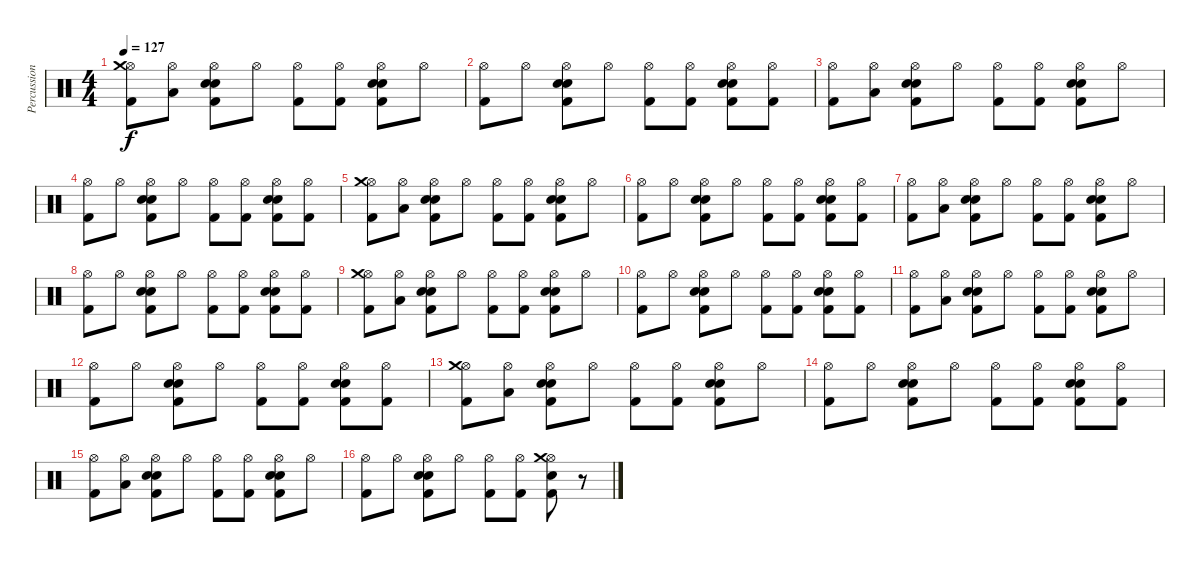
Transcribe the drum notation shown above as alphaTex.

\track ("Percussion" "Percussion") {instrument percussion}
\staff {score}
\articulation defaults
\ts (4 4)
\tempo 127
\clef neutral
\ks c
("Hi-Hat (open)" "Crash medium (hit)" "Kick (hit) 2").8{dy f} ("Hi-Hat (open)" "Low Floor Tom (hit)").8 ("Hi-Hat (open)" "Hand Clap (hit)" "Electric Snare (hit)" "Kick (hit) 2").8 "Hi-Hat (open)".8 ("Hi-Hat (open)" "Kick (hit) 2").8 ("Hi-Hat (open)" "Kick (hit) 2").8 ("Hi-Hat (open)" "Hand Clap (hit)" "Electric Snare (hit)" "Kick (hit) 2").8 "Hi-Hat (open)".8 |
("Hi-Hat (open)" "Kick (hit) 2").8 "Hi-Hat (open)".8 ("Hi-Hat (open)" "Hand Clap (hit)" "Electric Snare (hit)" "Kick (hit) 2").8 "Hi-Hat (open)".8 ("Hi-Hat (open)" "Kick (hit) 2").8 ("Hi-Hat (open)" "Kick (hit) 2").8 ("Hi-Hat (open)" "Hand Clap (hit)" "Electric Snare (hit)" "Kick (hit) 2").8 ("Hi-Hat (open)" "Kick (hit) 2").8 |
("Hi-Hat (open)" "Kick (hit) 2").8 ("Hi-Hat (open)" "Low Floor Tom (hit)").8 ("Hi-Hat (open)" "Hand Clap (hit)" "Electric Snare (hit)" "Kick (hit) 2").8 "Hi-Hat (open)".8 ("Hi-Hat (open)" "Kick (hit) 2").8 ("Hi-Hat (open)" "Kick (hit) 2").8 ("Hi-Hat (open)" "Hand Clap (hit)" "Electric Snare (hit)" "Kick (hit) 2").8 "Hi-Hat (open)".8 |
("Hi-Hat (open)" "Kick (hit) 2").8 "Hi-Hat (open)".8 ("Hi-Hat (open)" "Hand Clap (hit)" "Electric Snare (hit)" "Kick (hit) 2").8 "Hi-Hat (open)".8 ("Hi-Hat (open)" "Kick (hit) 2").8 ("Hi-Hat (open)" "Kick (hit) 2").8 ("Hi-Hat (open)" "Hand Clap (hit)" "Electric Snare (hit)" "Kick (hit) 2").8 ("Hi-Hat (open)" "Kick (hit) 2").8 |
("Hi-Hat (open)" "Crash medium (hit)" "Kick (hit) 2").8 ("Hi-Hat (open)" "Low Floor Tom (hit)").8 ("Hi-Hat (open)" "Hand Clap (hit)" "Electric Snare (hit)" "Kick (hit) 2").8 "Hi-Hat (open)".8 ("Hi-Hat (open)" "Kick (hit) 2").8 ("Hi-Hat (open)" "Kick (hit) 2").8 ("Hi-Hat (open)" "Hand Clap (hit)" "Electric Snare (hit)" "Kick (hit) 2").8 "Hi-Hat (open)".8 |
("Hi-Hat (open)" "Kick (hit) 2").8 "Hi-Hat (open)".8 ("Hi-Hat (open)" "Hand Clap (hit)" "Electric Snare (hit)" "Kick (hit) 2").8 "Hi-Hat (open)".8 ("Hi-Hat (open)" "Kick (hit) 2").8 ("Hi-Hat (open)" "Kick (hit) 2").8 ("Hi-Hat (open)" "Hand Clap (hit)" "Electric Snare (hit)" "Kick (hit) 2").8 ("Hi-Hat (open)" "Kick (hit) 2").8 |
("Hi-Hat (open)" "Kick (hit) 2").8 ("Hi-Hat (open)" "Low Floor Tom (hit)").8 ("Hi-Hat (open)" "Hand Clap (hit)" "Electric Snare (hit)" "Kick (hit) 2").8 "Hi-Hat (open)".8 ("Hi-Hat (open)" "Kick (hit) 2").8 ("Hi-Hat (open)" "Kick (hit) 2").8 ("Hi-Hat (open)" "Hand Clap (hit)" "Electric Snare (hit)" "Kick (hit) 2").8 "Hi-Hat (open)".8 |
("Hi-Hat (open)" "Kick (hit) 2").8 "Hi-Hat (open)".8 ("Hi-Hat (open)" "Hand Clap (hit)" "Electric Snare (hit)" "Kick (hit) 2").8 "Hi-Hat (open)".8 ("Hi-Hat (open)" "Kick (hit) 2").8 ("Hi-Hat (open)" "Kick (hit) 2").8 ("Hi-Hat (open)" "Hand Clap (hit)" "Electric Snare (hit)" "Kick (hit) 2").8 ("Hi-Hat (open)" "Kick (hit) 2").8 |
("Hi-Hat (open)" "Crash medium (hit)" "Kick (hit) 2").8 ("Hi-Hat (open)" "Low Floor Tom (hit)").8 ("Hi-Hat (open)" "Hand Clap (hit)" "Electric Snare (hit)" "Kick (hit) 2").8 "Hi-Hat (open)".8 ("Hi-Hat (open)" "Kick (hit) 2").8 ("Hi-Hat (open)" "Kick (hit) 2").8 ("Hi-Hat (open)" "Hand Clap (hit)" "Electric Snare (hit)" "Kick (hit) 2").8 "Hi-Hat (open)".8 |
("Hi-Hat (open)" "Kick (hit) 2").8 "Hi-Hat (open)".8 ("Hi-Hat (open)" "Hand Clap (hit)" "Electric Snare (hit)" "Kick (hit) 2").8 "Hi-Hat (open)".8 ("Hi-Hat (open)" "Kick (hit) 2").8 ("Hi-Hat (open)" "Kick (hit) 2").8 ("Hi-Hat (open)" "Hand Clap (hit)" "Electric Snare (hit)" "Kick (hit) 2").8 ("Hi-Hat (open)" "Kick (hit) 2").8 |
("Hi-Hat (open)" "Kick (hit) 2").8 ("Hi-Hat (open)" "Low Floor Tom (hit)").8 ("Hi-Hat (open)" "Hand Clap (hit)" "Electric Snare (hit)" "Kick (hit) 2").8 "Hi-Hat (open)".8 ("Hi-Hat (open)" "Kick (hit) 2").8 ("Hi-Hat (open)" "Kick (hit) 2").8 ("Hi-Hat (open)" "Hand Clap (hit)" "Electric Snare (hit)" "Kick (hit) 2").8 "Hi-Hat (open)".8 |
("Hi-Hat (open)" "Kick (hit) 2").8 "Hi-Hat (open)".8 ("Hi-Hat (open)" "Hand Clap (hit)" "Electric Snare (hit)" "Kick (hit) 2").8 "Hi-Hat (open)".8 ("Hi-Hat (open)" "Kick (hit) 2").8 ("Hi-Hat (open)" "Kick (hit) 2").8 ("Hi-Hat (open)" "Hand Clap (hit)" "Electric Snare (hit)" "Kick (hit) 2").8 ("Hi-Hat (open)" "Kick (hit) 2").8 |
("Hi-Hat (open)" "Crash medium (hit)" "Kick (hit) 2").8 ("Hi-Hat (open)" "Low Floor Tom (hit)").8 ("Hi-Hat (open)" "Hand Clap (hit)" "Electric Snare (hit)" "Kick (hit) 2").8 "Hi-Hat (open)".8 ("Hi-Hat (open)" "Kick (hit) 2").8 ("Hi-Hat (open)" "Kick (hit) 2").8 ("Hi-Hat (open)" "Hand Clap (hit)" "Electric Snare (hit)" "Kick (hit) 2").8 "Hi-Hat (open)".8 |
("Hi-Hat (open)" "Kick (hit) 2").8 "Hi-Hat (open)".8 ("Hi-Hat (open)" "Hand Clap (hit)" "Electric Snare (hit)" "Kick (hit) 2").8 "Hi-Hat (open)".8 ("Hi-Hat (open)" "Kick (hit) 2").8 ("Hi-Hat (open)" "Kick (hit) 2").8 ("Hi-Hat (open)" "Hand Clap (hit)" "Electric Snare (hit)" "Kick (hit) 2").8 ("Hi-Hat (open)" "Kick (hit) 2").8 |
("Hi-Hat (open)" "Kick (hit) 2").8 ("Hi-Hat (open)" "Low Floor Tom (hit)").8 ("Hi-Hat (open)" "Hand Clap (hit)" "Electric Snare (hit)" "Kick (hit) 2").8 "Hi-Hat (open)".8 ("Hi-Hat (open)" "Kick (hit) 2").8 ("Hi-Hat (open)" "Kick (hit) 2").8 ("Hi-Hat (open)" "Hand Clap (hit)" "Electric Snare (hit)" "Kick (hit) 2").8 "Hi-Hat (open)".8 |
("Hi-Hat (open)" "Kick (hit) 2").8 "Hi-Hat (open)".8 ("Hi-Hat (open)" "Hand Clap (hit)" "Electric Snare (hit)" "Kick (hit) 2").8 "Hi-Hat (open)".8 ("Hi-Hat (open)" "Kick (hit) 2").8 ("Hi-Hat (open)" "Kick (hit) 2").8 ("Hi-Hat (open)" "Crash medium (hit)" "Electric Snare (hit)" "Kick (hit) 2").8 r.8
